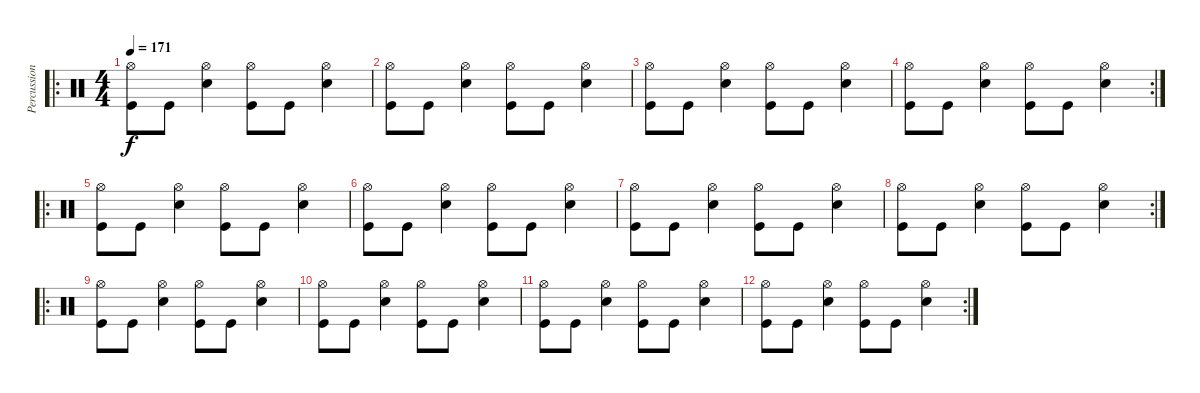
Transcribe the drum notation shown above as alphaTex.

\track ("Percussion" "Percussion") {instrument percussion}
\staff {score}
\articulation defaults
\ro
\ts (4 4)
\tempo 171
\clef neutral
\ks c
("Hi-Hat (open)" "Kick (hit)").8{dy f} "Kick (hit)".8 ("Hi-Hat (open)" "Snare (hit) 2").4 ("Hi-Hat (open)" "Kick (hit)").8 "Kick (hit)".8 ("Hi-Hat (open)" "Snare (hit) 2").4 |
("Hi-Hat (open)" "Kick (hit)").8 "Kick (hit)".8 ("Hi-Hat (open)" "Snare (hit) 2").4 ("Hi-Hat (open)" "Kick (hit)").8 "Kick (hit)".8 ("Hi-Hat (open)" "Snare (hit) 2").4 |
("Hi-Hat (open)" "Kick (hit)").8 "Kick (hit)".8 ("Hi-Hat (open)" "Snare (hit) 2").4 ("Hi-Hat (open)" "Kick (hit)").8 "Kick (hit)".8 ("Hi-Hat (open)" "Snare (hit) 2").4 |
\rc 2
("Hi-Hat (open)" "Kick (hit)").8 "Kick (hit)".8 ("Hi-Hat (open)" "Snare (hit) 2").4 ("Hi-Hat (open)" "Kick (hit)").8 "Kick (hit)".8 ("Hi-Hat (open)" "Snare (hit) 2").4 |
\ro
("Hi-Hat (open)" "Kick (hit)").8 "Kick (hit)".8 ("Hi-Hat (open)" "Snare (hit) 2").4 ("Hi-Hat (open)" "Kick (hit)").8 "Kick (hit)".8 ("Hi-Hat (open)" "Snare (hit) 2").4 |
("Hi-Hat (open)" "Kick (hit)").8 "Kick (hit)".8 ("Hi-Hat (open)" "Snare (hit) 2").4 ("Hi-Hat (open)" "Kick (hit)").8 "Kick (hit)".8 ("Hi-Hat (open)" "Snare (hit) 2").4 |
("Hi-Hat (open)" "Kick (hit)").8 "Kick (hit)".8 ("Hi-Hat (open)" "Snare (hit) 2").4 ("Hi-Hat (open)" "Kick (hit)").8 "Kick (hit)".8 ("Hi-Hat (open)" "Snare (hit) 2").4 |
\rc 2
("Hi-Hat (open)" "Kick (hit)").8 "Kick (hit)".8 ("Hi-Hat (open)" "Snare (hit) 2").4 ("Hi-Hat (open)" "Kick (hit)").8 "Kick (hit)".8 ("Hi-Hat (open)" "Snare (hit) 2").4 |
\ro
("Hi-Hat (open)" "Kick (hit)").8 "Kick (hit)".8 ("Hi-Hat (open)" "Snare (hit) 2").4 ("Hi-Hat (open)" "Kick (hit)").8 "Kick (hit)".8 ("Hi-Hat (open)" "Snare (hit) 2").4 |
("Hi-Hat (open)" "Kick (hit)").8 "Kick (hit)".8 ("Hi-Hat (open)" "Snare (hit) 2").4 ("Hi-Hat (open)" "Kick (hit)").8 "Kick (hit)".8 ("Hi-Hat (open)" "Snare (hit) 2").4 |
("Hi-Hat (open)" "Kick (hit)").8 "Kick (hit)".8 ("Hi-Hat (open)" "Snare (hit) 2").4 ("Hi-Hat (open)" "Kick (hit)").8 "Kick (hit)".8 ("Hi-Hat (open)" "Snare (hit) 2").4 |
\rc 2
("Hi-Hat (open)" "Kick (hit)").8 "Kick (hit)".8 ("Hi-Hat (open)" "Snare (hit) 2").4 ("Hi-Hat (open)" "Kick (hit)").8 "Kick (hit)".8 ("Hi-Hat (open)" "Snare (hit) 2").4
